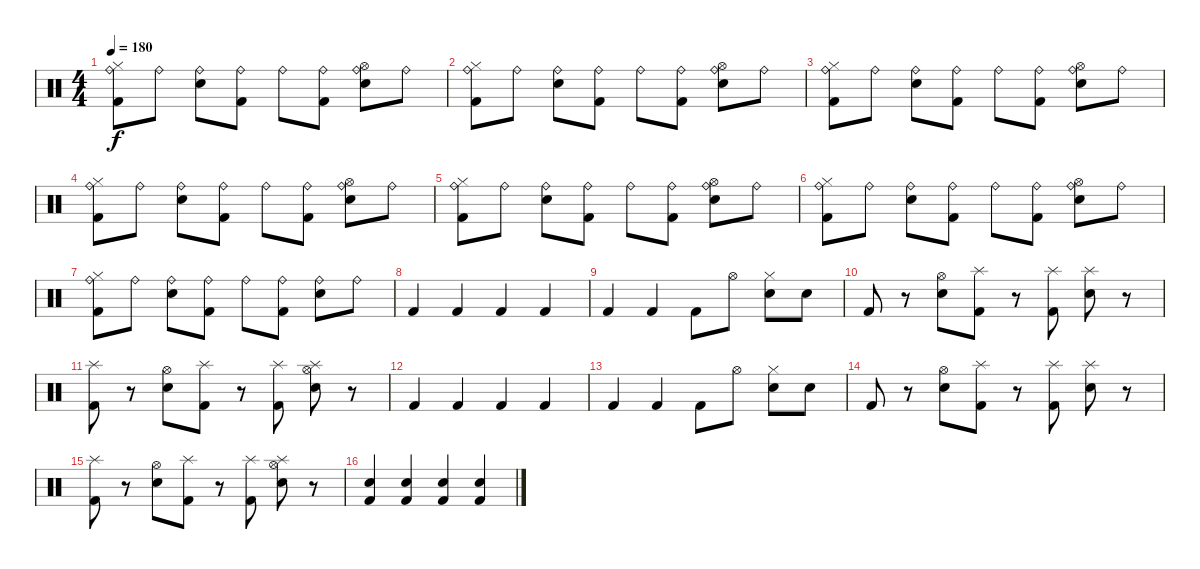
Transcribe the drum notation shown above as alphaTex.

\track "" {instrument percussion}
\staff {score}
\articulation defaults
\ts (4 4)
\tempo 180
\clef neutral
\ks c
("Ride (bell)" "Hi-Hat (closed)" "Kick (hit) 2").8{dy f} "Ride (bell)".8 ("Ride (bell)" "Electric Snare (hit)").8 ("Ride (bell)" "Kick (hit) 2").8 "Ride (bell)".8 ("Ride (bell)" "Kick (hit) 2").8 ("Ride (bell)" "Hi-Hat (open)" "Electric Snare (hit)").8 "Ride (bell)".8 |
("Ride (bell)" "Hi-Hat (closed)" "Kick (hit) 2").8 "Ride (bell)".8 ("Ride (bell)" "Electric Snare (hit)").8 ("Ride (bell)" "Kick (hit) 2").8 "Ride (bell)".8 ("Ride (bell)" "Kick (hit) 2").8 ("Ride (bell)" "Hi-Hat (open)" "Electric Snare (hit)").8 "Ride (bell)".8 |
("Ride (bell)" "Hi-Hat (closed)" "Kick (hit) 2").8 "Ride (bell)".8 ("Ride (bell)" "Electric Snare (hit)").8 ("Ride (bell)" "Kick (hit) 2").8 "Ride (bell)".8 ("Ride (bell)" "Kick (hit) 2").8 ("Ride (bell)" "Hi-Hat (open)" "Electric Snare (hit)").8 "Ride (bell)".8 |
("Hi-Hat (closed)" "Ride (bell)" "Kick (hit) 2").8 "Ride (bell)".8 ("Ride (bell)" "Electric Snare (hit)").8 ("Ride (bell)" "Kick (hit) 2").8 "Ride (bell)".8 ("Ride (bell)" "Kick (hit) 2").8 ("Ride (bell)" "Hi-Hat (open)" "Electric Snare (hit)").8 "Ride (bell)".8 |
("Ride (bell)" "Hi-Hat (closed)" "Kick (hit) 2").8 "Ride (bell)".8 ("Ride (bell)" "Electric Snare (hit)").8 ("Ride (bell)" "Kick (hit) 2").8 "Ride (bell)".8 ("Ride (bell)" "Kick (hit) 2").8 ("Ride (bell)" "Hi-Hat (open)" "Electric Snare (hit)").8 "Ride (bell)".8 |
("Ride (bell)" "Hi-Hat (closed)" "Kick (hit) 2").8 "Ride (bell)".8 ("Ride (bell)" "Electric Snare (hit)").8 ("Ride (bell)" "Kick (hit) 2").8 "Ride (bell)".8 ("Ride (bell)" "Kick (hit) 2").8 ("Ride (bell)" "Hi-Hat (open)" "Electric Snare (hit)").8 "Ride (bell)".8 |
("Ride (bell)" "Hi-Hat (closed)" "Kick (hit) 2").8 "Ride (bell)".8 ("Ride (bell)" "Electric Snare (hit)").8 ("Ride (bell)" "Kick (hit) 2").8 "Ride (bell)".8 ("Ride (bell)" "Kick (hit) 2").8 ("Ride (bell)" "Electric Snare (hit)").8 "Ride (bell)".8 |
"Kick (hit) 2".4 "Kick (hit) 2".4 "Kick (hit) 2".4 "Kick (hit) 2".4 |
"Kick (hit) 2".4 "Kick (hit) 2".4 "Kick (hit) 2".8 "Hi-Hat (open)".8 ("Hi-Hat (closed)" "Electric Snare (hit)").8 "Electric Snare (hit)".8 |
"Kick (hit) 2".8 r.8 ("Hi-Hat (open)" "Electric Snare (hit)").8 ("Splash (hit)" "Kick (hit) 2").8 r.8 ("Splash (hit)" "Kick (hit) 2").8 ("Splash (hit)" "Electric Snare (hit)").8 r.8 |
("Splash (hit)" "Kick (hit) 2").8 r.8 ("Hi-Hat (open)" "Electric Snare (hit)").8 ("Splash (hit)" "Kick (hit) 2").8 r.8 ("Splash (hit)" "Kick (hit) 2").8 ("Hi-Hat (open)" "Splash (hit)" "Electric Snare (hit)").8 r.8 |
"Kick (hit) 2".4 "Kick (hit) 2".4 "Kick (hit) 2".4 "Kick (hit) 2".4 |
"Kick (hit) 2".4 "Kick (hit) 2".4 "Kick (hit) 2".8 "Hi-Hat (open)".8 ("Hi-Hat (closed)" "Electric Snare (hit)").8 "Electric Snare (hit)".8 |
"Kick (hit) 2".8 r.8 ("Hi-Hat (open)" "Electric Snare (hit)").8 ("Splash (hit)" "Kick (hit) 2").8 r.8 ("Splash (hit)" "Kick (hit) 2").8 ("Splash (hit)" "Electric Snare (hit)").8 r.8 |
("Splash (hit)" "Kick (hit) 2").8 r.8 ("Hi-Hat (open)" "Electric Snare (hit)").8 ("Splash (hit)" "Kick (hit) 2").8 r.8 ("Splash (hit)" "Kick (hit) 2").8 ("Hi-Hat (open)" "Splash (hit)" "Electric Snare (hit)").8 r.8 |
("Kick (hit) 2" "Electric Snare (hit)").4 ("Kick (hit) 2" "Electric Snare (hit)").4 ("Kick (hit) 2" "Electric Snare (hit)").4 ("Kick (hit) 2" "Electric Snare (hit)").4
